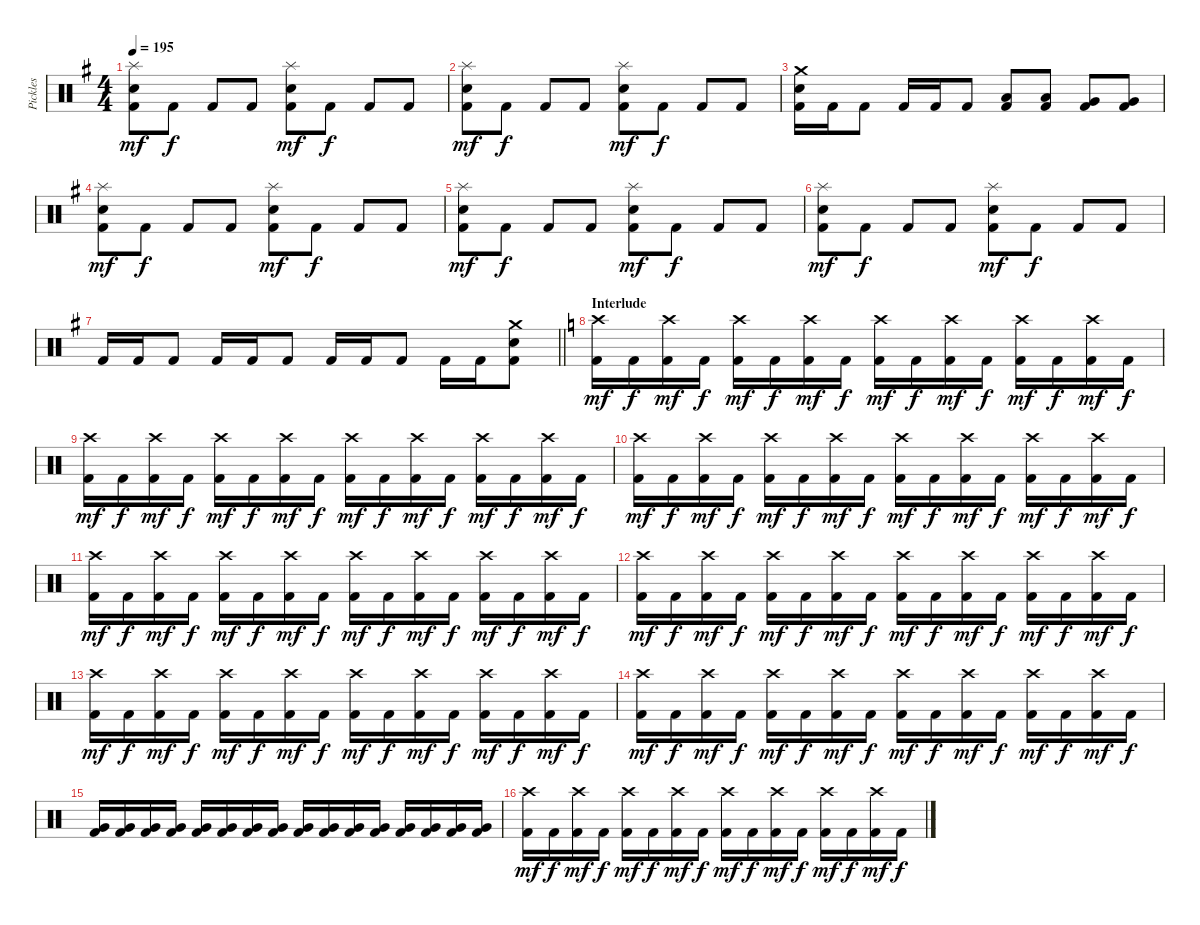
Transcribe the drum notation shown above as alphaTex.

\track ("Pickles" "Pickles") {instrument percussion}
\staff {score}
\articulation defaults
\ts (4 4)
\tempo 195
\clef neutral
\ks eminor
("Splash (hit)" "Snare (hit) 2" "Kick (hit) 2").8{dy mf} "Kick (hit) 2".8{dy f} "Kick (hit) 2".8 "Kick (hit) 2".8 ("Splash (hit)" "Snare (hit) 2" "Kick (hit) 2").8{dy mf} "Kick (hit) 2".8{dy f} "Kick (hit) 2".8 "Kick (hit) 2".8 |
("Splash (hit)" "Snare (hit) 2" "Kick (hit) 2").8{dy mf} "Kick (hit) 2".8{dy f} "Kick (hit) 2".8 "Kick (hit) 2".8 ("Splash (hit)" "Snare (hit) 2" "Kick (hit) 2").8{dy mf} "Kick (hit) 2".8{dy f} "Kick (hit) 2".8 "Kick (hit) 2".8 |
("Crash medium (hit)" "Snare (hit) 2" "Kick (hit) 2").16 "Kick (hit) 2".16 "Kick (hit) 2".8 "Kick (hit) 2".16 "Kick (hit) 2".16 "Kick (hit) 2".8 ("Low Tom (hit)" "Kick (hit) 2").8 ("Low Tom (hit)" "Kick (hit) 2").8 ("Very Low Tom (hit)" "Kick (hit) 2").8 ("Very Low Tom (hit)" "Kick (hit) 2").8 |
("Splash (hit)" "Snare (hit) 2" "Kick (hit) 2").8{dy mf} "Kick (hit) 2".8{dy f} "Kick (hit) 2".8 "Kick (hit) 2".8 ("Splash (hit)" "Snare (hit) 2" "Kick (hit) 2").8{dy mf} "Kick (hit) 2".8{dy f} "Kick (hit) 2".8 "Kick (hit) 2".8 |
("Splash (hit)" "Snare (hit) 2" "Kick (hit) 2").8{dy mf} "Kick (hit) 2".8{dy f} "Kick (hit) 2".8 "Kick (hit) 2".8 ("Splash (hit)" "Snare (hit) 2" "Kick (hit) 2").8{dy mf} "Kick (hit) 2".8{dy f} "Kick (hit) 2".8 "Kick (hit) 2".8 |
("Splash (hit)" "Snare (hit) 2" "Kick (hit) 2").8{dy mf} "Kick (hit) 2".8{dy f} "Kick (hit) 2".8 "Kick (hit) 2".8 ("Splash (hit)" "Snare (hit) 2" "Kick (hit) 2").8{dy mf} "Kick (hit) 2".8{dy f} "Kick (hit) 2".8 "Kick (hit) 2".8 |
\barLineRight lightlight "Kick (hit) 2".16 "Kick (hit) 2".16 "Kick (hit) 2".8 "Kick (hit) 2".16 "Kick (hit) 2".16 "Kick (hit) 2".8 "Kick (hit) 2".16 "Kick (hit) 2".16 "Kick (hit) 2".8 "Kick (hit) 2".16 "Kick (hit) 2".16
("Crash medium (hit)" "Snare (hit) 2" "Kick (hit) 2").8 |
\section ("" "Interlude")
\ks aminor
("Crash high (hit)" "Kick (hit) 2").16{dy mf} "Kick (hit) 2".16{dy f} ("Crash high (hit)" "Kick (hit) 2").16{dy mf} "Kick (hit) 2".16{dy f} ("Crash high (hit)" "Kick (hit) 2").16{dy mf} "Kick (hit) 2".16{dy f} ("Crash high (hit)" "Kick (hit) 2").16{dy mf} "Kick (hit) 2".16{dy f} ("Crash high (hit)" "Kick (hit) 2").16{dy mf} "Kick (hit) 2".16{dy f} ("Crash high (hit)" "Kick (hit) 2").16{dy mf} "Kick (hit) 2".16{dy f} ("Crash high (hit)" "Kick (hit) 2").16{dy mf} "Kick (hit) 2".16{dy f} ("Crash high (hit)" "Kick (hit) 2").16{dy mf} "Kick (hit) 2".16{dy f} |
("Crash high (hit)" "Kick (hit) 2").16{dy mf} "Kick (hit) 2".16{dy f} ("Crash high (hit)" "Kick (hit) 2").16{dy mf} "Kick (hit) 2".16{dy f} ("Crash high (hit)" "Kick (hit) 2").16{dy mf} "Kick (hit) 2".16{dy f} ("Crash high (hit)" "Kick (hit) 2").16{dy mf} "Kick (hit) 2".16{dy f} ("Crash high (hit)" "Kick (hit) 2").16{dy mf} "Kick (hit) 2".16{dy f} ("Crash high (hit)" "Kick (hit) 2").16{dy mf} "Kick (hit) 2".16{dy f} ("Crash high (hit)" "Kick (hit) 2").16{dy mf} "Kick (hit) 2".16{dy f} ("Crash high (hit)" "Kick (hit) 2").16{dy mf} "Kick (hit) 2".16{dy f} |
("Crash high (hit)" "Kick (hit) 2").16{dy mf} "Kick (hit) 2".16{dy f} ("Crash high (hit)" "Kick (hit) 2").16{dy mf} "Kick (hit) 2".16{dy f} ("Crash high (hit)" "Kick (hit) 2").16{dy mf} "Kick (hit) 2".16{dy f} ("Crash high (hit)" "Kick (hit) 2").16{dy mf} "Kick (hit) 2".16{dy f} ("Crash high (hit)" "Kick (hit) 2").16{dy mf} "Kick (hit) 2".16{dy f} ("Crash high (hit)" "Kick (hit) 2").16{dy mf} "Kick (hit) 2".16{dy f} ("Crash high (hit)" "Kick (hit) 2").16{dy mf} "Kick (hit) 2".16{dy f} ("Crash high (hit)" "Kick (hit) 2").16{dy mf} "Kick (hit) 2".16{dy f} |
("Crash high (hit)" "Kick (hit) 2").16{dy mf} "Kick (hit) 2".16{dy f} ("Crash high (hit)" "Kick (hit) 2").16{dy mf} "Kick (hit) 2".16{dy f} ("Crash high (hit)" "Kick (hit) 2").16{dy mf} "Kick (hit) 2".16{dy f} ("Crash high (hit)" "Kick (hit) 2").16{dy mf} "Kick (hit) 2".16{dy f} ("Crash high (hit)" "Kick (hit) 2").16{dy mf} "Kick (hit) 2".16{dy f} ("Crash high (hit)" "Kick (hit) 2").16{dy mf} "Kick (hit) 2".16{dy f} ("Crash high (hit)" "Kick (hit) 2").16{dy mf} "Kick (hit) 2".16{dy f} ("Crash high (hit)" "Kick (hit) 2").16{dy mf} "Kick (hit) 2".16{dy f} |
("Crash high (hit)" "Kick (hit) 2").16{dy mf} "Kick (hit) 2".16{dy f} ("Crash high (hit)" "Kick (hit) 2").16{dy mf} "Kick (hit) 2".16{dy f} ("Crash high (hit)" "Kick (hit) 2").16{dy mf} "Kick (hit) 2".16{dy f} ("Crash high (hit)" "Kick (hit) 2").16{dy mf} "Kick (hit) 2".16{dy f} ("Crash high (hit)" "Kick (hit) 2").16{dy mf} "Kick (hit) 2".16{dy f} ("Crash high (hit)" "Kick (hit) 2").16{dy mf} "Kick (hit) 2".16{dy f} ("Crash high (hit)" "Kick (hit) 2").16{dy mf} "Kick (hit) 2".16{dy f} ("Crash high (hit)" "Kick (hit) 2").16{dy mf} "Kick (hit) 2".16{dy f} |
("Crash high (hit)" "Kick (hit) 2").16{dy mf} "Kick (hit) 2".16{dy f} ("Crash high (hit)" "Kick (hit) 2").16{dy mf} "Kick (hit) 2".16{dy f} ("Crash high (hit)" "Kick (hit) 2").16{dy mf} "Kick (hit) 2".16{dy f} ("Crash high (hit)" "Kick (hit) 2").16{dy mf} "Kick (hit) 2".16{dy f} ("Crash high (hit)" "Kick (hit) 2").16{dy mf} "Kick (hit) 2".16{dy f} ("Crash high (hit)" "Kick (hit) 2").16{dy mf} "Kick (hit) 2".16{dy f} ("Crash high (hit)" "Kick (hit) 2").16{dy mf} "Kick (hit) 2".16{dy f} ("Crash high (hit)" "Kick (hit) 2").16{dy mf} "Kick (hit) 2".16{dy f} |
("Crash high (hit)" "Kick (hit) 2").16{dy mf} "Kick (hit) 2".16{dy f} ("Crash high (hit)" "Kick (hit) 2").16{dy mf} "Kick (hit) 2".16{dy f} ("Crash high (hit)" "Kick (hit) 2").16{dy mf} "Kick (hit) 2".16{dy f} ("Crash high (hit)" "Kick (hit) 2").16{dy mf} "Kick (hit) 2".16{dy f} ("Crash high (hit)" "Kick (hit) 2").16{dy mf} "Kick (hit) 2".16{dy f} ("Crash high (hit)" "Kick (hit) 2").16{dy mf} "Kick (hit) 2".16{dy f} ("Crash high (hit)" "Kick (hit) 2").16{dy mf} "Kick (hit) 2".16{dy f} ("Crash high (hit)" "Kick (hit) 2").16{dy mf} "Kick (hit) 2".16{dy f} |
("Very Low Tom (hit)" "Kick (hit) 2").16 ("Very Low Tom (hit)" "Kick (hit) 2").16 ("Very Low Tom (hit)" "Kick (hit) 2").16 ("Very Low Tom (hit)" "Kick (hit) 2").16 ("Very Low Tom (hit)" "Kick (hit) 2").16 ("Very Low Tom (hit)" "Kick (hit) 2").16 ("Very Low Tom (hit)" "Kick (hit) 2").16 ("Very Low Tom (hit)" "Kick (hit) 2").16 ("Very Low Tom (hit)" "Kick (hit) 2").16 ("Very Low Tom (hit)" "Kick (hit) 2").16 ("Very Low Tom (hit)" "Kick (hit) 2").16 ("Very Low Tom (hit)" "Kick (hit) 2").16 ("Very Low Tom (hit)" "Kick (hit) 2").16 ("Very Low Tom (hit)" "Kick (hit) 2").16 ("Very Low Tom (hit)" "Kick (hit) 2").16 ("Very Low Tom (hit)" "Kick (hit) 2").16 |
("Crash high (hit)" "Kick (hit) 2").16{dy mf} "Kick (hit) 2".16{dy f} ("Crash high (hit)" "Kick (hit) 2").16{dy mf} "Kick (hit) 2".16{dy f} ("Crash high (hit)" "Kick (hit) 2").16{dy mf} "Kick (hit) 2".16{dy f} ("Crash high (hit)" "Kick (hit) 2").16{dy mf} "Kick (hit) 2".16{dy f} ("Crash high (hit)" "Kick (hit) 2").16{dy mf} "Kick (hit) 2".16{dy f} ("Crash high (hit)" "Kick (hit) 2").16{dy mf} "Kick (hit) 2".16{dy f} ("Crash high (hit)" "Kick (hit) 2").16{dy mf} "Kick (hit) 2".16{dy f} ("Crash high (hit)" "Kick (hit) 2").16{dy mf} "Kick (hit) 2".16{dy f}
